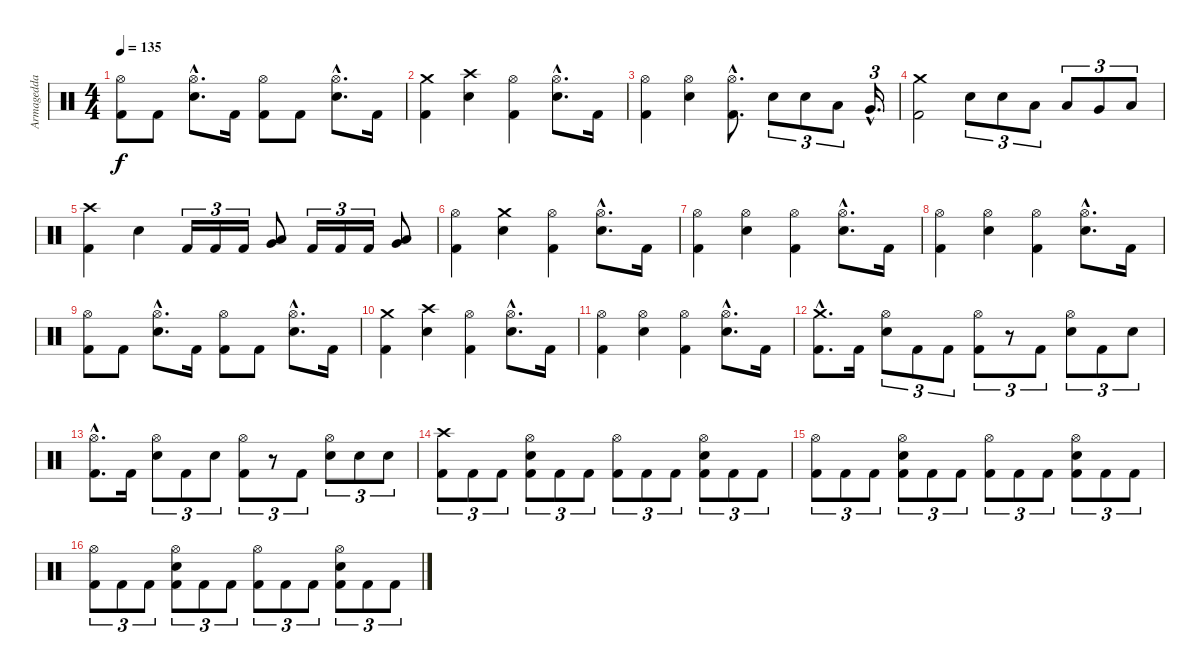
\track ("Armagedda" "Armagedda") {instrument percussion}
\staff {score}
\articulation defaults
\ts (4 4)
\tempo 135
\clef neutral
\ks c
("Hi-Hat (open)" "Kick (hit) 2").8{dy f} "Kick (hit) 2".8 ("Hi-Hat (open)"{hac} "Electric Snare (hit)"{hac}).8{d} "Kick (hit) 2".16 ("Hi-Hat (open)" "Kick (hit) 2").8 "Kick (hit) 2".8 ("Hi-Hat (open)"{hac} "Electric Snare (hit)"{hac}).8{d} "Kick (hit) 2".16 |
("Crash medium (hit)" "Kick (hit) 2").4 ("Crash high (hit)" "Electric Snare (hit)").4 ("Hi-Hat (open)" "Kick (hit) 2").4 ("Hi-Hat (open)"{hac} "Electric Snare (hit)"{hac}).8{d} "Kick (hit) 2".16 |
("Hi-Hat (open)" "Kick (hit) 2").4 ("Hi-Hat (open)" "Electric Snare (hit)").4 ("Hi-Hat (open)"{hac} "Kick (hit) 2"{hac}).8{d} "Electric Snare (hit)".8{tu (3 2)} "Electric Snare (hit)".8{tu (3 2)} "Low Tom (hit)".8{tu (3 2)} "Very Low Tom (hit)"{hac}.16{d tu (3 2)} |
("Crash medium (hit)" "Kick (hit) 2").2 "Electric Snare (hit)".8{tu (3 2)} "Electric Snare (hit)".8{tu (3 2)} "Low Tom (hit)".8{tu (3 2)} "Low Tom (hit)".8{tu (3 2)} "Very Low Tom (hit)".8{tu (3 2)} "Low Floor Tom (hit)".8{tu (3 2)} |
("Crash high (hit)" "Kick (hit) 2").4 "Electric Snare (hit)".4 "Kick (hit) 2".16{tu (3 2)} "Kick (hit) 2".16{tu (3 2)} "Kick (hit) 2".16{tu (3 2)} ("Very Low Tom (hit)" "Low Floor Tom (hit)").8 "Kick (hit) 2".16{tu (3 2)} "Kick (hit) 2".16{tu (3 2)} "Kick (hit) 2".16{tu (3 2)} ("Very Low Tom (hit)" "Low Floor Tom (hit)").8 |
("Hi-Hat (open)" "Kick (hit) 2").4 ("Crash medium (hit)" "Electric Snare (hit)").4 ("Hi-Hat (open)" "Kick (hit) 2").4 ("Hi-Hat (open)"{hac} "Electric Snare (hit)"{hac}).8{d} "Kick (hit) 2".16 |
("Hi-Hat (open)" "Kick (hit) 2").4 ("Hi-Hat (open)" "Electric Snare (hit)").4 ("Hi-Hat (open)" "Kick (hit) 2").4 ("Hi-Hat (open)"{hac} "Electric Snare (hit)"{hac}).8{d} "Kick (hit) 2".16 |
("Hi-Hat (open)" "Kick (hit) 2").4 ("Hi-Hat (open)" "Electric Snare (hit)").4 ("Hi-Hat (open)" "Kick (hit) 2").4 ("Hi-Hat (open)"{hac} "Electric Snare (hit)"{hac}).8{d} "Kick (hit) 2".16 |
("Hi-Hat (open)" "Kick (hit) 2").8 "Kick (hit) 2".8 ("Hi-Hat (open)"{hac} "Electric Snare (hit)"{hac}).8{d} "Kick (hit) 2".16 ("Hi-Hat (open)" "Kick (hit) 2").8 "Kick (hit) 2".8 ("Hi-Hat (open)"{hac} "Electric Snare (hit)"{hac}).8{d} "Kick (hit) 2".16 |
("Crash medium (hit)" "Kick (hit) 2").4 ("Crash high (hit)" "Electric Snare (hit)").4 ("Hi-Hat (open)" "Kick (hit) 2").4 ("Hi-Hat (open)"{hac} "Electric Snare (hit)"{hac}).8{d} "Kick (hit) 2".16 |
("Hi-Hat (open)" "Kick (hit) 2").4 ("Hi-Hat (open)" "Electric Snare (hit)").4 ("Hi-Hat (open)" "Kick (hit) 2").4 ("Hi-Hat (open)"{hac} "Electric Snare (hit)"{hac}).8{d} "Kick (hit) 2".16 |
("Crash medium (hit)"{hac} "Kick (hit) 2"{hac}).8{d} "Kick (hit) 2".16 ("Hi-Hat (open)" "Electric Snare (hit)").8{tu (3 2)} "Kick (hit) 2".8{tu (3 2)} "Kick (hit) 2".8{tu (3 2)} ("Hi-Hat (open)" "Kick (hit) 2").8{tu (3 2)} r.8{tu (3 2)} "Kick (hit) 2".8{tu (3 2)} ("Hi-Hat (open)" "Electric Snare (hit)").8{tu (3 2)} "Kick (hit) 2".8{tu (3 2)} "Electric Snare (hit)".8{tu (3 2)} |
("Hi-Hat (open)"{hac} "Kick (hit) 2"{hac}).8{d} "Kick (hit) 2".16 ("Hi-Hat (open)" "Electric Snare (hit)").8{tu (3 2)} "Kick (hit) 2".8{tu (3 2)} "Electric Snare (hit)".8{tu (3 2)} ("Hi-Hat (open)" "Kick (hit) 2").8{tu (3 2)} r.8{tu (3 2)} "Kick (hit) 2".8{tu (3 2)} ("Hi-Hat (open)" "Electric Snare (hit)").8{tu (3 2)} "Electric Snare (hit)".8{tu (3 2)} "Electric Snare (hit)".8{tu (3 2)} |
("Crash high (hit)" "Kick (hit) 2").8{tu (3 2)} "Kick (hit) 2".8{tu (3 2)} "Kick (hit) 2".8{tu (3 2)} ("Hi-Hat (open)" "Electric Snare (hit)" "Kick (hit) 2").8{tu (3 2)} "Kick (hit) 2".8{tu (3 2)} "Kick (hit) 2".8{tu (3 2)} ("Hi-Hat (open)" "Kick (hit) 2").8{tu (3 2)} "Kick (hit) 2".8{tu (3 2)} "Kick (hit) 2".8{tu (3 2)} ("Hi-Hat (open)" "Electric Snare (hit)" "Kick (hit) 2").8{tu (3 2)} "Kick (hit) 2".8{tu (3 2)} "Kick (hit) 2".8{tu (3 2)} |
("Hi-Hat (open)" "Kick (hit) 2").8{tu (3 2)} "Kick (hit) 2".8{tu (3 2)} "Kick (hit) 2".8{tu (3 2)} ("Hi-Hat (open)" "Electric Snare (hit)" "Kick (hit) 2").8{tu (3 2)} "Kick (hit) 2".8{tu (3 2)} "Kick (hit) 2".8{tu (3 2)} ("Hi-Hat (open)" "Kick (hit) 2").8{tu (3 2)} "Kick (hit) 2".8{tu (3 2)} "Kick (hit) 2".8{tu (3 2)} ("Hi-Hat (open)" "Electric Snare (hit)" "Kick (hit) 2").8{tu (3 2)} "Kick (hit) 2".8{tu (3 2)} "Kick (hit) 2".8{tu (3 2)} |
("Hi-Hat (open)" "Kick (hit) 2").8{tu (3 2)} "Kick (hit) 2".8{tu (3 2)} "Kick (hit) 2".8{tu (3 2)} ("Hi-Hat (open)" "Electric Snare (hit)" "Kick (hit) 2").8{tu (3 2)} "Kick (hit) 2".8{tu (3 2)} "Kick (hit) 2".8{tu (3 2)} ("Hi-Hat (open)" "Kick (hit) 2").8{tu (3 2)} "Kick (hit) 2".8{tu (3 2)} "Kick (hit) 2".8{tu (3 2)} ("Hi-Hat (open)" "Electric Snare (hit)" "Kick (hit) 2").8{tu (3 2)} "Kick (hit) 2".8{tu (3 2)} "Kick (hit) 2".8{tu (3 2)}
